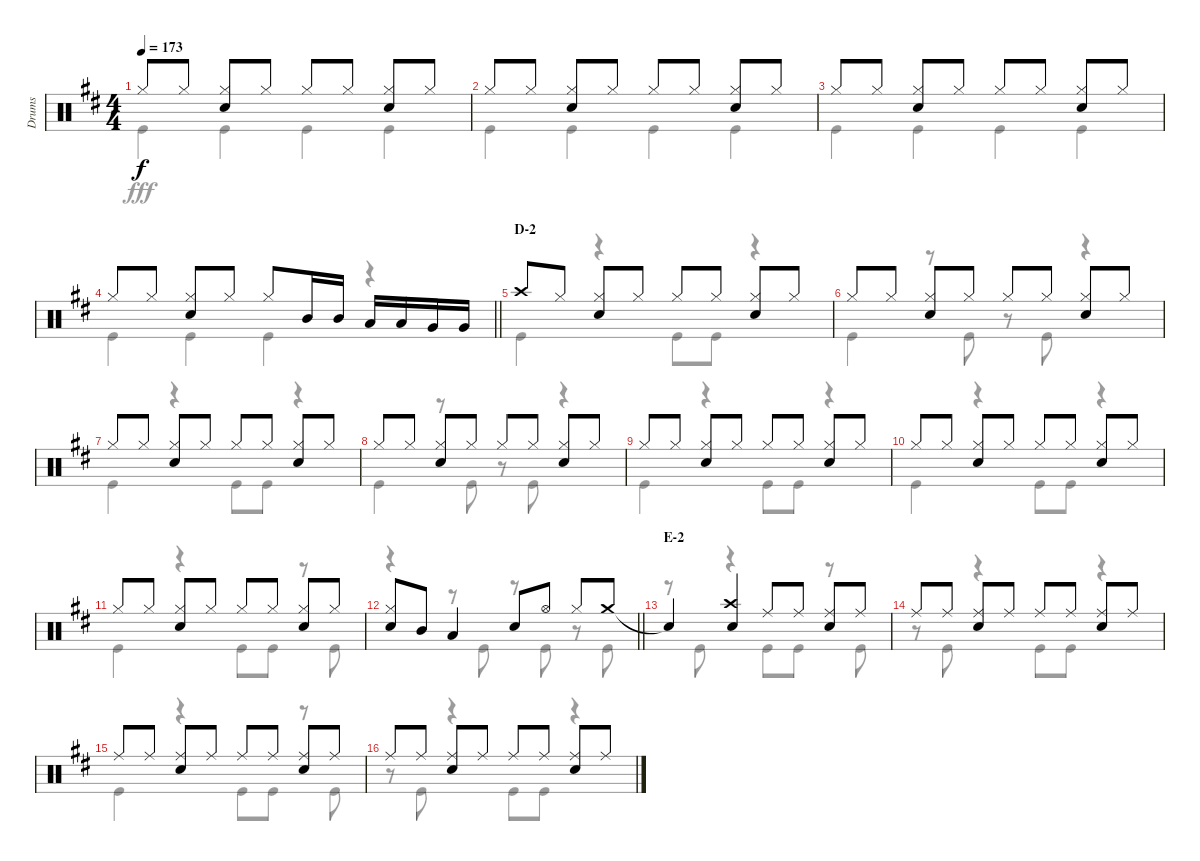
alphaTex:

\track ("Drums" "Drums") {instrument percussion}
\staff {score}
\articulation defaults
\voice
\ts (4 4)
\tempo 173
\clef neutral
\ks d "Hi-Hat (closed)".8{dy f} "Hi-Hat (closed)".8
("Hi-Hat (closed)" "Snare (hit) 2").8 "Hi-Hat (closed)".8 "Hi-Hat (closed)".8 "Hi-Hat (closed)".8 ("Hi-Hat (closed)" "Snare (hit) 2").8 "Hi-Hat (closed)".8 |
"Hi-Hat (closed)".8 "Hi-Hat (closed)".8 ("Hi-Hat (closed)" "Snare (hit) 2").8 "Hi-Hat (closed)".8 "Hi-Hat (closed)".8 "Hi-Hat (closed)".8 ("Hi-Hat (closed)" "Snare (hit) 2").8 "Hi-Hat (closed)".8 |
"Hi-Hat (closed)".8 "Hi-Hat (closed)".8 ("Hi-Hat (closed)" "Snare (hit) 2").8 "Hi-Hat (closed)".8 "Hi-Hat (closed)".8 "Hi-Hat (closed)".8 ("Hi-Hat (closed)" "Snare (hit) 2").8 "Hi-Hat (closed)".8 |
\barLineRight lightlight "Hi-Hat (closed)".8 "Hi-Hat (closed)".8
("Hi-Hat (closed)" "Snare (hit) 2").8 "Hi-Hat (closed)".8 "Hi-Hat (closed)".8 "Mid Tom (hit)".16 "Mid Tom (hit)".16 "Low Tom (hit)".16 "Low Tom (hit)".16 "Very Low Tom (hit)".16 "Very Low Tom (hit)".16 |
\section ("" "D-2")
"Crash high (hit)".8 "Hi-Hat (closed)".8 ("Hi-Hat (closed)" "Snare (hit) 2").8 "Hi-Hat (closed)".8 "Hi-Hat (closed)".8 "Hi-Hat (closed)".8 ("Hi-Hat (closed)" "Snare (hit) 2").8 "Hi-Hat (closed)".8 |
"Hi-Hat (closed)".8 "Hi-Hat (closed)".8 ("Hi-Hat (closed)" "Snare (hit) 2").8 "Hi-Hat (closed)".8 "Hi-Hat (closed)".8 "Hi-Hat (closed)".8 ("Hi-Hat (closed)" "Snare (hit) 2").8 "Hi-Hat (closed)".8 |
"Hi-Hat (closed)".8 "Hi-Hat (closed)".8 ("Hi-Hat (closed)" "Snare (hit) 2").8 "Hi-Hat (closed)".8 "Hi-Hat (closed)".8 "Hi-Hat (closed)".8 ("Hi-Hat (closed)" "Snare (hit) 2").8 "Hi-Hat (closed)".8 |
"Hi-Hat (closed)".8 "Hi-Hat (closed)".8 ("Hi-Hat (closed)" "Snare (hit) 2").8 "Hi-Hat (closed)".8 "Hi-Hat (closed)".8 "Hi-Hat (closed)".8 ("Hi-Hat (closed)" "Snare (hit) 2").8 "Hi-Hat (closed)".8 |
"Hi-Hat (closed)".8 "Hi-Hat (closed)".8 ("Hi-Hat (closed)" "Snare (hit) 2").8 "Hi-Hat (closed)".8 "Hi-Hat (closed)".8 "Hi-Hat (closed)".8 ("Hi-Hat (closed)" "Snare (hit) 2").8 "Hi-Hat (closed)".8 |
"Hi-Hat (closed)".8 "Hi-Hat (closed)".8 ("Hi-Hat (closed)" "Snare (hit) 2").8 "Hi-Hat (closed)".8 "Hi-Hat (closed)".8 "Hi-Hat (closed)".8 ("Hi-Hat (closed)" "Snare (hit) 2").8 "Hi-Hat (closed)".8 |
"Hi-Hat (closed)".8 "Hi-Hat (closed)".8 ("Hi-Hat (closed)" "Snare (hit) 2").8 "Hi-Hat (closed)".8 "Hi-Hat (closed)".8 "Hi-Hat (closed)".8 ("Hi-Hat (closed)" "Snare (hit) 2").8 "Hi-Hat (closed)".8 |
\barLineRight lightlight
("Hi-Hat (closed)" "Snare (hit) 2").8 "Mid Tom (hit)".8 "Low Tom (hit)".4 "Snare (hit) 2".8 "Hi-Hat (open)".8 "Hi-Hat (closed)".8 "Crash medium (hit)".8 |
\section ("" "E-2")
"Snare (hit)"{t}.4 ("Crash high (hit)" "Snare (hit) 2").4 "Ride (middle)".8 "Ride (middle)".8 ("Ride (middle)" "Snare (hit) 2").8 "Ride (middle)".8 |
"Ride (middle)".8 "Ride (middle)".8 ("Ride (middle)" "Snare (hit) 2").8 "Ride (middle)".8 "Ride (middle)".8 "Ride (middle)".8 ("Ride (middle)" "Snare (hit) 2").8 "Ride (middle)".8 |
"Ride (middle)".8 "Ride (middle)".8 ("Ride (middle)" "Snare (hit) 2").8 "Ride (middle)".8 "Ride (middle)".8 "Ride (middle)".8 ("Ride (middle)" "Snare (hit) 2").8 "Ride (middle)".8 |
"Ride (middle)".8 "Ride (middle)".8 ("Ride (middle)" "Snare (hit) 2").8 "Ride (middle)".8 "Ride (middle)".8 "Ride (middle)".8 ("Ride (middle)" "Snare (hit) 2").8 "Ride (middle)".8
\voice
\clef neutral
\ottava regular
\simile none
\ks d "Kick (hit)".4{dy fff} "Kick (hit)".4 "Kick (hit)".4 "Kick (hit)".4
|
"Kick (hit)".4 "Kick (hit)".4 "Kick (hit)".4 "Kick (hit)".4 |
"Kick (hit)".4 "Kick (hit)".4 "Kick (hit)".4 "Kick (hit)".4 |
\barLineRight lightlight "Kick (hit)".4 "Kick (hit)".4 "Kick (hit)".4
r.4 |
"Kick (hit)".4 r.4 "Kick (hit)".8 "Kick (hit)".8 r.4 |
"Kick (hit)".4 r.8 "Kick (hit)".8 r.8 "Kick (hit)".8 r.4 |
"Kick (hit)".4 r.4 "Kick (hit)".8 "Kick (hit)".8 r.4 |
"Kick (hit)".4 r.8 "Kick (hit)".8 r.8 "Kick (hit)".8 r.4 |
"Kick (hit)".4 r.4 "Kick (hit)".8 "Kick (hit)".8 r.4 |
"Kick (hit)".4 r.4 "Kick (hit)".8 "Kick (hit)".8 r.4 |
"Kick (hit)".4 r.4 "Kick (hit)".8 "Kick (hit)".8 r.8 "Kick (hit)".8 |
\barLineRight lightlight
r.4 r.8 "Kick (hit)".8 r.8 "Kick (hit)".8 r.8 "Kick (hit)".8 |
r.8 "Kick (hit)".8 r.4 "Kick (hit)".8 "Kick (hit)".8 r.8 "Kick (hit)".8 |
r.8 "Kick (hit)".8 r.4 "Kick (hit)".8 "Kick (hit)".8 r.4 |
"Kick (hit)".4 r.4 "Kick (hit)".8 "Kick (hit)".8 r.8 "Kick (hit)".8 |
r.8 "Kick (hit)".8 r.4 "Kick (hit)".8 "Kick (hit)".8 r.4
